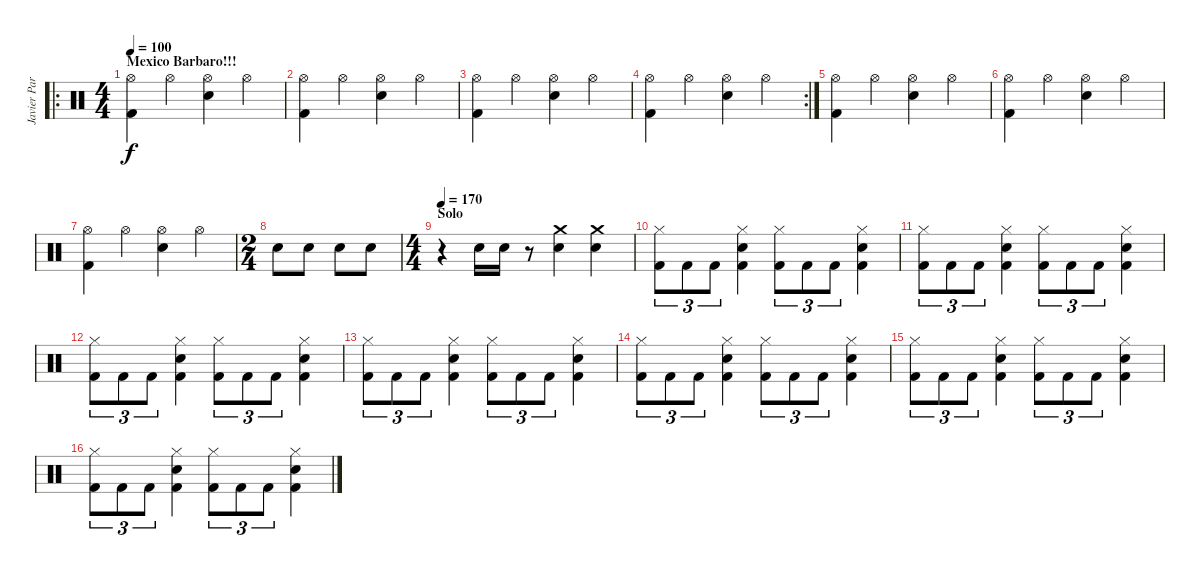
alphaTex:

\track ("Javier Partida" "Javier Par") {instrument percussion}
\staff {score}
\articulation defaults
\ro
\ts (4 4)
\section ("" "Mexico Barbaro!!!")
\tempo 100
\clef neutral
\ks c
("Kick (hit) 2" "Hi-Hat (open)").4{dy f} "Hi-Hat (open)".4 ("Snare (hit) 2" "Hi-Hat (open)").4 "Hi-Hat (open)".4 |
("Kick (hit) 2" "Hi-Hat (open)").4 "Hi-Hat (open)".4 ("Snare (hit) 2" "Hi-Hat (open)").4 "Hi-Hat (open)".4 |
("Kick (hit) 2" "Hi-Hat (open)").4 "Hi-Hat (open)".4 ("Snare (hit) 2" "Hi-Hat (open)").4 "Hi-Hat (open)".4 |
\rc 2
("Kick (hit) 2" "Hi-Hat (open)").4 "Hi-Hat (open)".4 ("Snare (hit) 2" "Hi-Hat (open)").4 "Hi-Hat (open)".4 |
("Kick (hit) 2" "Hi-Hat (open)").4 "Hi-Hat (open)".4 ("Snare (hit) 2" "Hi-Hat (open)").4 "Hi-Hat (open)".4 |
("Kick (hit) 2" "Hi-Hat (open)").4 "Hi-Hat (open)".4 ("Snare (hit) 2" "Hi-Hat (open)").4 "Hi-Hat (open)".4 |
("Kick (hit) 2" "Hi-Hat (open)").4 "Hi-Hat (open)".4 ("Snare (hit) 2" "Hi-Hat (open)").4 "Hi-Hat (open)".4 |
\ts (2 4)
"Snare (hit) 2".8 "Snare (hit) 2".8 "Snare (hit) 2".8 "Snare (hit) 2".8 |
\ts (4 4)
\section ("" "Solo")
\tempo 170
r.4 "Snare (hit) 2".16 "Snare (hit) 2".16 r.8 ("Snare (hit) 2" "Crash medium (hit)").4 ("Snare (hit) 2" "Crash medium (hit)").4 |
("Kick (hit) 2" "Hi-Hat (closed)").8{tu (3 2)} "Kick (hit) 2".8{tu (3 2)} "Kick (hit) 2".8{tu (3 2)} ("Kick (hit) 2" "Snare (hit) 2" "Hi-Hat (closed)").4 ("Kick (hit) 2" "Hi-Hat (closed)").8{tu (3 2)} "Kick (hit) 2".8{tu (3 2)} "Kick (hit) 2".8{tu (3 2)} ("Kick (hit) 2" "Snare (hit) 2" "Hi-Hat (closed)").4 |
("Kick (hit) 2" "Hi-Hat (closed)").8{tu (3 2)} "Kick (hit) 2".8{tu (3 2)} "Kick (hit) 2".8{tu (3 2)} ("Kick (hit) 2" "Snare (hit) 2" "Hi-Hat (closed)").4 ("Kick (hit) 2" "Hi-Hat (closed)").8{tu (3 2)} "Kick (hit) 2".8{tu (3 2)} "Kick (hit) 2".8{tu (3 2)} ("Kick (hit) 2" "Snare (hit) 2" "Hi-Hat (closed)").4 |
("Kick (hit) 2" "Hi-Hat (closed)").8{tu (3 2)} "Kick (hit) 2".8{tu (3 2)} "Kick (hit) 2".8{tu (3 2)} ("Kick (hit) 2" "Snare (hit) 2" "Hi-Hat (closed)").4 ("Kick (hit) 2" "Hi-Hat (closed)").8{tu (3 2)} "Kick (hit) 2".8{tu (3 2)} "Kick (hit) 2".8{tu (3 2)} ("Kick (hit) 2" "Snare (hit) 2" "Hi-Hat (closed)").4 |
("Kick (hit) 2" "Hi-Hat (closed)").8{tu (3 2)} "Kick (hit) 2".8{tu (3 2)} "Kick (hit) 2".8{tu (3 2)} ("Kick (hit) 2" "Snare (hit) 2" "Hi-Hat (closed)").4 ("Kick (hit) 2" "Hi-Hat (closed)").8{tu (3 2)} "Kick (hit) 2".8{tu (3 2)} "Kick (hit) 2".8{tu (3 2)} ("Kick (hit) 2" "Snare (hit) 2" "Hi-Hat (closed)").4 |
("Kick (hit) 2" "Hi-Hat (closed)").8{tu (3 2)} "Kick (hit) 2".8{tu (3 2)} "Kick (hit) 2".8{tu (3 2)} ("Kick (hit) 2" "Snare (hit) 2" "Hi-Hat (closed)").4 ("Kick (hit) 2" "Hi-Hat (closed)").8{tu (3 2)} "Kick (hit) 2".8{tu (3 2)} "Kick (hit) 2".8{tu (3 2)} ("Kick (hit) 2" "Snare (hit) 2" "Hi-Hat (closed)").4 |
("Kick (hit) 2" "Hi-Hat (closed)").8{tu (3 2)} "Kick (hit) 2".8{tu (3 2)} "Kick (hit) 2".8{tu (3 2)} ("Kick (hit) 2" "Snare (hit) 2" "Hi-Hat (closed)").4 ("Kick (hit) 2" "Hi-Hat (closed)").8{tu (3 2)} "Kick (hit) 2".8{tu (3 2)} "Kick (hit) 2".8{tu (3 2)} ("Kick (hit) 2" "Snare (hit) 2" "Hi-Hat (closed)").4 |
("Kick (hit) 2" "Hi-Hat (closed)").8{tu (3 2)} "Kick (hit) 2".8{tu (3 2)} "Kick (hit) 2".8{tu (3 2)} ("Kick (hit) 2" "Snare (hit) 2" "Hi-Hat (closed)").4 ("Kick (hit) 2" "Hi-Hat (closed)").8{tu (3 2)} "Kick (hit) 2".8{tu (3 2)} "Kick (hit) 2".8{tu (3 2)} ("Kick (hit) 2" "Snare (hit) 2" "Hi-Hat (closed)").4
